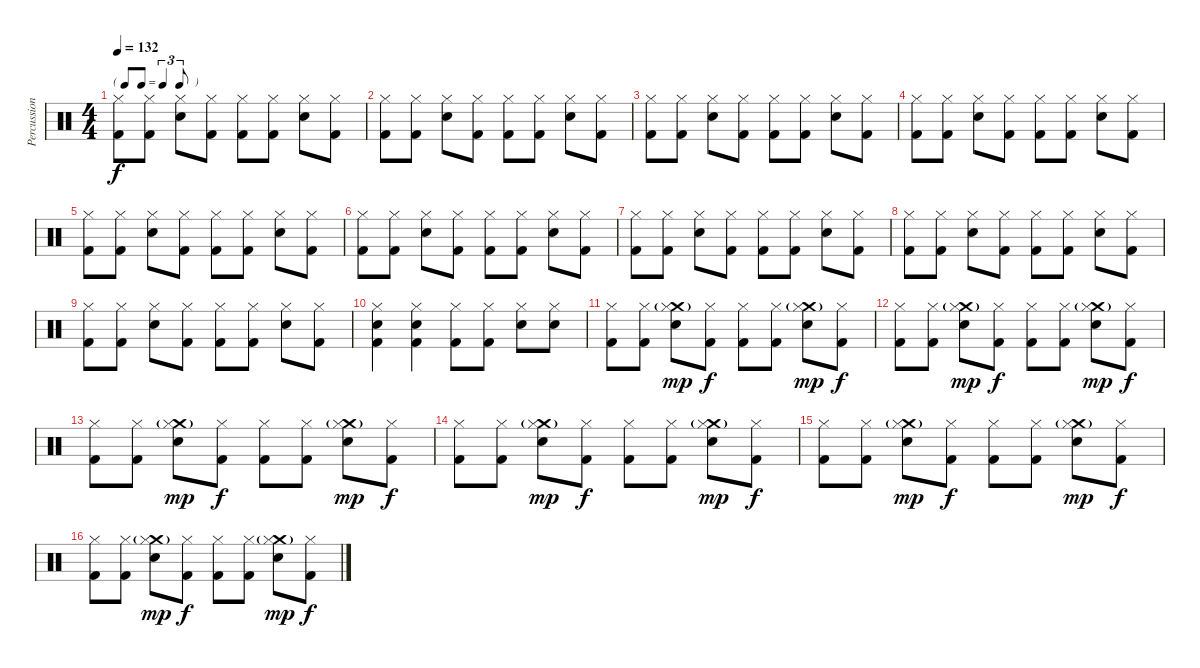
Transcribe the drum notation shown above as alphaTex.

\track ("Percussion" "Percussion") {instrument percussion}
\staff {score}
\articulation defaults
\ts (4 4)
\tf triplet8th
\tempo 132
\clef neutral
\ks c
("Hi-Hat (closed)" "Kick (hit) 2").8{dy f} ("Hi-Hat (closed)" "Kick (hit) 2").8 ("Hi-Hat (closed)" "Electric Snare (hit)").8 ("Hi-Hat (closed)" "Kick (hit) 2").8 ("Hi-Hat (closed)" "Kick (hit) 2").8 ("Hi-Hat (closed)" "Kick (hit) 2").8 ("Hi-Hat (closed)" "Electric Snare (hit)").8 ("Hi-Hat (closed)" "Kick (hit) 2").8 |
("Hi-Hat (closed)" "Kick (hit) 2").8 ("Hi-Hat (closed)" "Kick (hit) 2").8 ("Hi-Hat (closed)" "Electric Snare (hit)").8 ("Hi-Hat (closed)" "Kick (hit) 2").8 ("Hi-Hat (closed)" "Kick (hit) 2").8 ("Hi-Hat (closed)" "Kick (hit) 2").8 ("Hi-Hat (closed)" "Electric Snare (hit)").8 ("Hi-Hat (closed)" "Kick (hit) 2").8 |
("Hi-Hat (closed)" "Kick (hit) 2").8 ("Hi-Hat (closed)" "Kick (hit) 2").8 ("Hi-Hat (closed)" "Electric Snare (hit)").8 ("Hi-Hat (closed)" "Kick (hit) 2").8 ("Hi-Hat (closed)" "Kick (hit) 2").8 ("Hi-Hat (closed)" "Kick (hit) 2").8 ("Hi-Hat (closed)" "Electric Snare (hit)").8 ("Hi-Hat (closed)" "Kick (hit) 2").8 |
("Hi-Hat (closed)" "Kick (hit) 2").8 ("Hi-Hat (closed)" "Kick (hit) 2").8 ("Hi-Hat (closed)" "Electric Snare (hit)").8 ("Hi-Hat (closed)" "Kick (hit) 2").8 ("Hi-Hat (closed)" "Kick (hit) 2").8 ("Hi-Hat (closed)" "Kick (hit) 2").8 ("Hi-Hat (closed)" "Electric Snare (hit)").8 ("Hi-Hat (closed)" "Kick (hit) 2").8 |
("Hi-Hat (closed)" "Kick (hit) 2").8 ("Hi-Hat (closed)" "Kick (hit) 2").8 ("Hi-Hat (closed)" "Electric Snare (hit)").8 ("Hi-Hat (closed)" "Kick (hit) 2").8 ("Hi-Hat (closed)" "Kick (hit) 2").8 ("Hi-Hat (closed)" "Kick (hit) 2").8 ("Hi-Hat (closed)" "Electric Snare (hit)").8 ("Hi-Hat (closed)" "Kick (hit) 2").8 |
("Hi-Hat (closed)" "Kick (hit) 2").8 ("Hi-Hat (closed)" "Kick (hit) 2").8 ("Hi-Hat (closed)" "Electric Snare (hit)").8 ("Hi-Hat (closed)" "Kick (hit) 2").8 ("Hi-Hat (closed)" "Kick (hit) 2").8 ("Hi-Hat (closed)" "Kick (hit) 2").8 ("Hi-Hat (closed)" "Electric Snare (hit)").8 ("Hi-Hat (closed)" "Kick (hit) 2").8 |
("Hi-Hat (closed)" "Kick (hit) 2").8 ("Hi-Hat (closed)" "Kick (hit) 2").8 ("Hi-Hat (closed)" "Electric Snare (hit)").8 ("Hi-Hat (closed)" "Kick (hit) 2").8 ("Hi-Hat (closed)" "Kick (hit) 2").8 ("Hi-Hat (closed)" "Kick (hit) 2").8 ("Hi-Hat (closed)" "Electric Snare (hit)").8 ("Hi-Hat (closed)" "Kick (hit) 2").8 |
("Hi-Hat (closed)" "Kick (hit) 2").8 ("Hi-Hat (closed)" "Kick (hit) 2").8 ("Hi-Hat (closed)" "Electric Snare (hit)").8 ("Hi-Hat (closed)" "Kick (hit) 2").8 ("Hi-Hat (closed)" "Kick (hit) 2").8 ("Hi-Hat (closed)" "Kick (hit) 2").8 ("Hi-Hat (closed)" "Electric Snare (hit)").8 ("Hi-Hat (closed)" "Kick (hit) 2").8 |
("Hi-Hat (closed)" "Kick (hit) 2").8 ("Hi-Hat (closed)" "Kick (hit) 2").8 ("Hi-Hat (closed)" "Electric Snare (hit)").8 ("Hi-Hat (closed)" "Kick (hit) 2").8 ("Hi-Hat (closed)" "Kick (hit) 2").8 ("Hi-Hat (closed)" "Kick (hit) 2").8 ("Hi-Hat (closed)" "Electric Snare (hit)").8 ("Hi-Hat (closed)" "Kick (hit) 2").8 |
("Hi-Hat (closed)" "Electric Snare (hit)" "Kick (hit) 2").4 ("Hi-Hat (closed)" "Electric Snare (hit)" "Kick (hit) 2").4 ("Hi-Hat (closed)" "Kick (hit) 2").8 ("Hi-Hat (closed)" "Kick (hit) 2").8 ("Hi-Hat (closed)" "Electric Snare (hit)").8 ("Hi-Hat (closed)" "Electric Snare (hit)").8 |
("Hi-Hat (closed)" "Kick (hit) 2").8 ("Hi-Hat (closed)" "Kick (hit) 2").8 ("Crash medium (hit)"{g} "Hi-Hat (closed)" "Electric Snare (hit)").8{dy mp} ("Hi-Hat (closed)" "Kick (hit) 2").8{dy f} ("Hi-Hat (closed)" "Kick (hit) 2").8 ("Hi-Hat (closed)" "Kick (hit) 2").8 ("Crash medium (hit)"{g} "Hi-Hat (closed)" "Electric Snare (hit)").8{dy mp} ("Hi-Hat (closed)" "Kick (hit) 2").8{dy f} |
("Hi-Hat (closed)" "Kick (hit) 2").8 ("Hi-Hat (closed)" "Kick (hit) 2").8 ("Crash medium (hit)"{g} "Hi-Hat (closed)" "Electric Snare (hit)").8{dy mp} ("Hi-Hat (closed)" "Kick (hit) 2").8{dy f} ("Hi-Hat (closed)" "Kick (hit) 2").8 ("Hi-Hat (closed)" "Kick (hit) 2").8 ("Crash medium (hit)"{g} "Hi-Hat (closed)" "Electric Snare (hit)").8{dy mp} ("Hi-Hat (closed)" "Kick (hit) 2").8{dy f} |
("Hi-Hat (closed)" "Kick (hit) 2").8 ("Hi-Hat (closed)" "Kick (hit) 2").8 ("Crash medium (hit)"{g} "Hi-Hat (closed)" "Electric Snare (hit)").8{dy mp} ("Hi-Hat (closed)" "Kick (hit) 2").8{dy f} ("Hi-Hat (closed)" "Kick (hit) 2").8 ("Hi-Hat (closed)" "Kick (hit) 2").8 ("Crash medium (hit)"{g} "Hi-Hat (closed)" "Electric Snare (hit)").8{dy mp} ("Hi-Hat (closed)" "Kick (hit) 2").8{dy f} |
("Hi-Hat (closed)" "Kick (hit) 2").8 ("Hi-Hat (closed)" "Kick (hit) 2").8 ("Crash medium (hit)"{g} "Hi-Hat (closed)" "Electric Snare (hit)").8{dy mp} ("Hi-Hat (closed)" "Kick (hit) 2").8{dy f} ("Hi-Hat (closed)" "Kick (hit) 2").8 ("Hi-Hat (closed)" "Kick (hit) 2").8 ("Crash medium (hit)"{g} "Hi-Hat (closed)" "Electric Snare (hit)").8{dy mp} ("Hi-Hat (closed)" "Kick (hit) 2").8{dy f} |
("Hi-Hat (closed)" "Kick (hit) 2").8 ("Hi-Hat (closed)" "Kick (hit) 2").8 ("Crash medium (hit)"{g} "Hi-Hat (closed)" "Electric Snare (hit)").8{dy mp} ("Hi-Hat (closed)" "Kick (hit) 2").8{dy f} ("Hi-Hat (closed)" "Kick (hit) 2").8 ("Hi-Hat (closed)" "Kick (hit) 2").8 ("Crash medium (hit)"{g} "Hi-Hat (closed)" "Electric Snare (hit)").8{dy mp} ("Hi-Hat (closed)" "Kick (hit) 2").8{dy f} |
("Hi-Hat (closed)" "Kick (hit) 2").8 ("Hi-Hat (closed)" "Kick (hit) 2").8 ("Crash medium (hit)"{g} "Hi-Hat (closed)" "Electric Snare (hit)").8{dy mp} ("Hi-Hat (closed)" "Kick (hit) 2").8{dy f} ("Hi-Hat (closed)" "Kick (hit) 2").8 ("Hi-Hat (closed)" "Kick (hit) 2").8 ("Crash medium (hit)"{g} "Hi-Hat (closed)" "Electric Snare (hit)").8{dy mp} ("Hi-Hat (closed)" "Kick (hit) 2").8{dy f}
